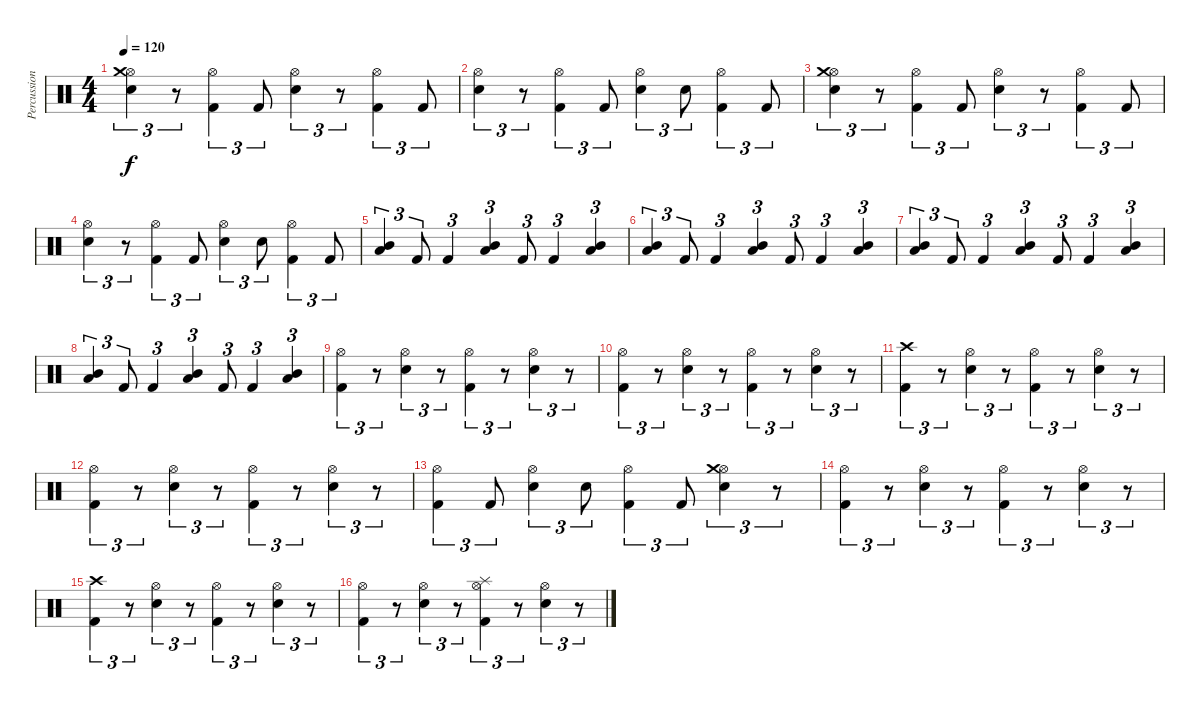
\track ("Percussioni" "Percussion") {instrument percussion}
\staff {score}
\articulation defaults
\ts (4 4)
\tempo 120
\clef neutral
\ks c
("Electric Snare (hit)" "Hi-Hat (open)" "Crash medium (hit)").4{tu (3 2) dy f} r.8{tu (3 2)} ("Kick (hit) 2" "Hi-Hat (open)").4{tu (3 2)} "Kick (hit) 2".8{tu (3 2)} ("Electric Snare (hit)" "Hi-Hat (open)").4{tu (3 2)} r.8{tu (3 2)} ("Kick (hit) 2" "Hi-Hat (open)").4{tu (3 2)} "Kick (hit) 2".8{tu (3 2)} |
("Electric Snare (hit)" "Hi-Hat (open)").4{tu (3 2)} r.8{tu (3 2)} ("Kick (hit) 2" "Hi-Hat (open)").4{tu (3 2)} "Kick (hit) 2".8{tu (3 2)} ("Electric Snare (hit)" "Hi-Hat (open)").4{tu (3 2)} "Electric Snare (hit)".8{tu (3 2)} ("Kick (hit) 2" "Hi-Hat (open)").4{tu (3 2)} "Kick (hit) 2".8{tu (3 2)} |
("Electric Snare (hit)" "Hi-Hat (open)" "Crash medium (hit)").4{tu (3 2)} r.8{tu (3 2)} ("Kick (hit) 2" "Hi-Hat (open)").4{tu (3 2)} "Kick (hit) 2".8{tu (3 2)} ("Electric Snare (hit)" "Hi-Hat (open)").4{tu (3 2)} r.8{tu (3 2)} ("Kick (hit) 2" "Hi-Hat (open)").4{tu (3 2)} "Kick (hit) 2".8{tu (3 2)} |
("Electric Snare (hit)" "Hi-Hat (open)").4{tu (3 2)} r.8{tu (3 2)} ("Kick (hit) 2" "Hi-Hat (open)").4{tu (3 2)} "Kick (hit) 2".8{tu (3 2)} ("Electric Snare (hit)" "Hi-Hat (open)").4{tu (3 2)} "Electric Snare (hit)".8{tu (3 2)} ("Kick (hit) 2" "Hi-Hat (open)").4{tu (3 2)} "Kick (hit) 2".8{tu (3 2)} |
("Low Tom (hit)" "Mid Tom (hit)").4{tu (3 2)} "Kick (hit) 2".8{tu (3 2)} "Kick (hit) 2".4{tu (3 2)} ("Low Tom (hit)" "Mid Tom (hit)").4{tu (3 2)} "Kick (hit) 2".8{tu (3 2)} "Kick (hit) 2".4{tu (3 2)} ("Low Tom (hit)" "Mid Tom (hit)").4{tu (3 2)} |
("Low Tom (hit)" "Mid Tom (hit)").4{tu (3 2)} "Kick (hit) 2".8{tu (3 2)} "Kick (hit) 2".4{tu (3 2)} ("Low Tom (hit)" "Mid Tom (hit)").4{tu (3 2)} "Kick (hit) 2".8{tu (3 2)} "Kick (hit) 2".4{tu (3 2)} ("Low Tom (hit)" "Mid Tom (hit)").4{tu (3 2)} |
("Low Tom (hit)" "Mid Tom (hit)").4{tu (3 2)} "Kick (hit) 2".8{tu (3 2)} "Kick (hit) 2".4{tu (3 2)} ("Low Tom (hit)" "Mid Tom (hit)").4{tu (3 2)} "Kick (hit) 2".8{tu (3 2)} "Kick (hit) 2".4{tu (3 2)} ("Low Tom (hit)" "Mid Tom (hit)").4{tu (3 2)} |
("Low Tom (hit)" "Mid Tom (hit)").4{tu (3 2)} "Kick (hit) 2".8{tu (3 2)} "Kick (hit) 2".4{tu (3 2)} ("Low Tom (hit)" "Mid Tom (hit)").4{tu (3 2)} "Kick (hit) 2".8{tu (3 2)} "Kick (hit) 2".4{tu (3 2)} ("Low Tom (hit)" "Mid Tom (hit)").4{tu (3 2)} |
("Kick (hit) 2" "Hi-Hat (open)").4{tu (3 2)} r.8{tu (3 2)} ("Electric Snare (hit)" "Hi-Hat (open)").4{tu (3 2)} r.8{tu (3 2)} ("Kick (hit) 2" "Hi-Hat (open)").4{tu (3 2)} r.8{tu (3 2)} ("Electric Snare (hit)" "Hi-Hat (open)").4{tu (3 2)} r.8{tu (3 2)} |
("Kick (hit) 2" "Hi-Hat (open)").4{tu (3 2)} r.8{tu (3 2)} ("Electric Snare (hit)" "Hi-Hat (open)").4{tu (3 2)} r.8{tu (3 2)} ("Kick (hit) 2" "Hi-Hat (open)").4{tu (3 2)} r.8{tu (3 2)} ("Electric Snare (hit)" "Hi-Hat (open)").4{tu (3 2)} r.8{tu (3 2)} |
("Kick (hit) 2" "Crash high (hit)").4{tu (3 2)} r.8{tu (3 2)} ("Electric Snare (hit)" "Hi-Hat (open)").4{tu (3 2)} r.8{tu (3 2)} ("Kick (hit) 2" "Hi-Hat (open)").4{tu (3 2)} r.8{tu (3 2)} ("Electric Snare (hit)" "Hi-Hat (open)").4{tu (3 2)} r.8{tu (3 2)} |
("Kick (hit) 2" "Hi-Hat (open)").4{tu (3 2)} r.8{tu (3 2)} ("Electric Snare (hit)" "Hi-Hat (open)").4{tu (3 2)} r.8{tu (3 2)} ("Kick (hit) 2" "Hi-Hat (open)").4{tu (3 2)} r.8{tu (3 2)} ("Electric Snare (hit)" "Hi-Hat (open)").4{tu (3 2)} r.8{tu (3 2)} |
("Kick (hit) 2" "Hi-Hat (open)").4{tu (3 2)} "Kick (hit) 2".8{tu (3 2)} ("Electric Snare (hit)" "Hi-Hat (open)").4{tu (3 2)} "Electric Snare (hit)".8{tu (3 2)} ("Kick (hit) 2" "Hi-Hat (open)").4{tu (3 2)} "Kick (hit) 2".8{tu (3 2)} ("Electric Snare (hit)" "Hi-Hat (open)" "Crash medium (hit)").4{tu (3 2)} r.8{tu (3 2)} |
("Kick (hit) 2" "Hi-Hat (open)").4{tu (3 2)} r.8{tu (3 2)} ("Electric Snare (hit)" "Hi-Hat (open)").4{tu (3 2)} r.8{tu (3 2)} ("Kick (hit) 2" "Hi-Hat (open)").4{tu (3 2)} r.8{tu (3 2)} ("Electric Snare (hit)" "Hi-Hat (open)").4{tu (3 2)} r.8{tu (3 2)} |
("Kick (hit) 2" "Crash high (hit)").4{tu (3 2)} r.8{tu (3 2)} ("Electric Snare (hit)" "Hi-Hat (open)").4{tu (3 2)} r.8{tu (3 2)} ("Kick (hit) 2" "Hi-Hat (open)").4{tu (3 2)} r.8{tu (3 2)} ("Electric Snare (hit)" "Hi-Hat (open)").4{tu (3 2)} r.8{tu (3 2)} |
("Kick (hit) 2" "Hi-Hat (open)").4{tu (3 2)} r.8{tu (3 2)} ("Electric Snare (hit)" "Hi-Hat (open)").4{tu (3 2)} r.8{tu (3 2)} ("Kick (hit) 2" "Hi-Hat (open)" "Splash (hit)").4{tu (3 2)} r.8{tu (3 2)} ("Electric Snare (hit)" "Hi-Hat (open)").4{tu (3 2)} r.8{tu (3 2)}
